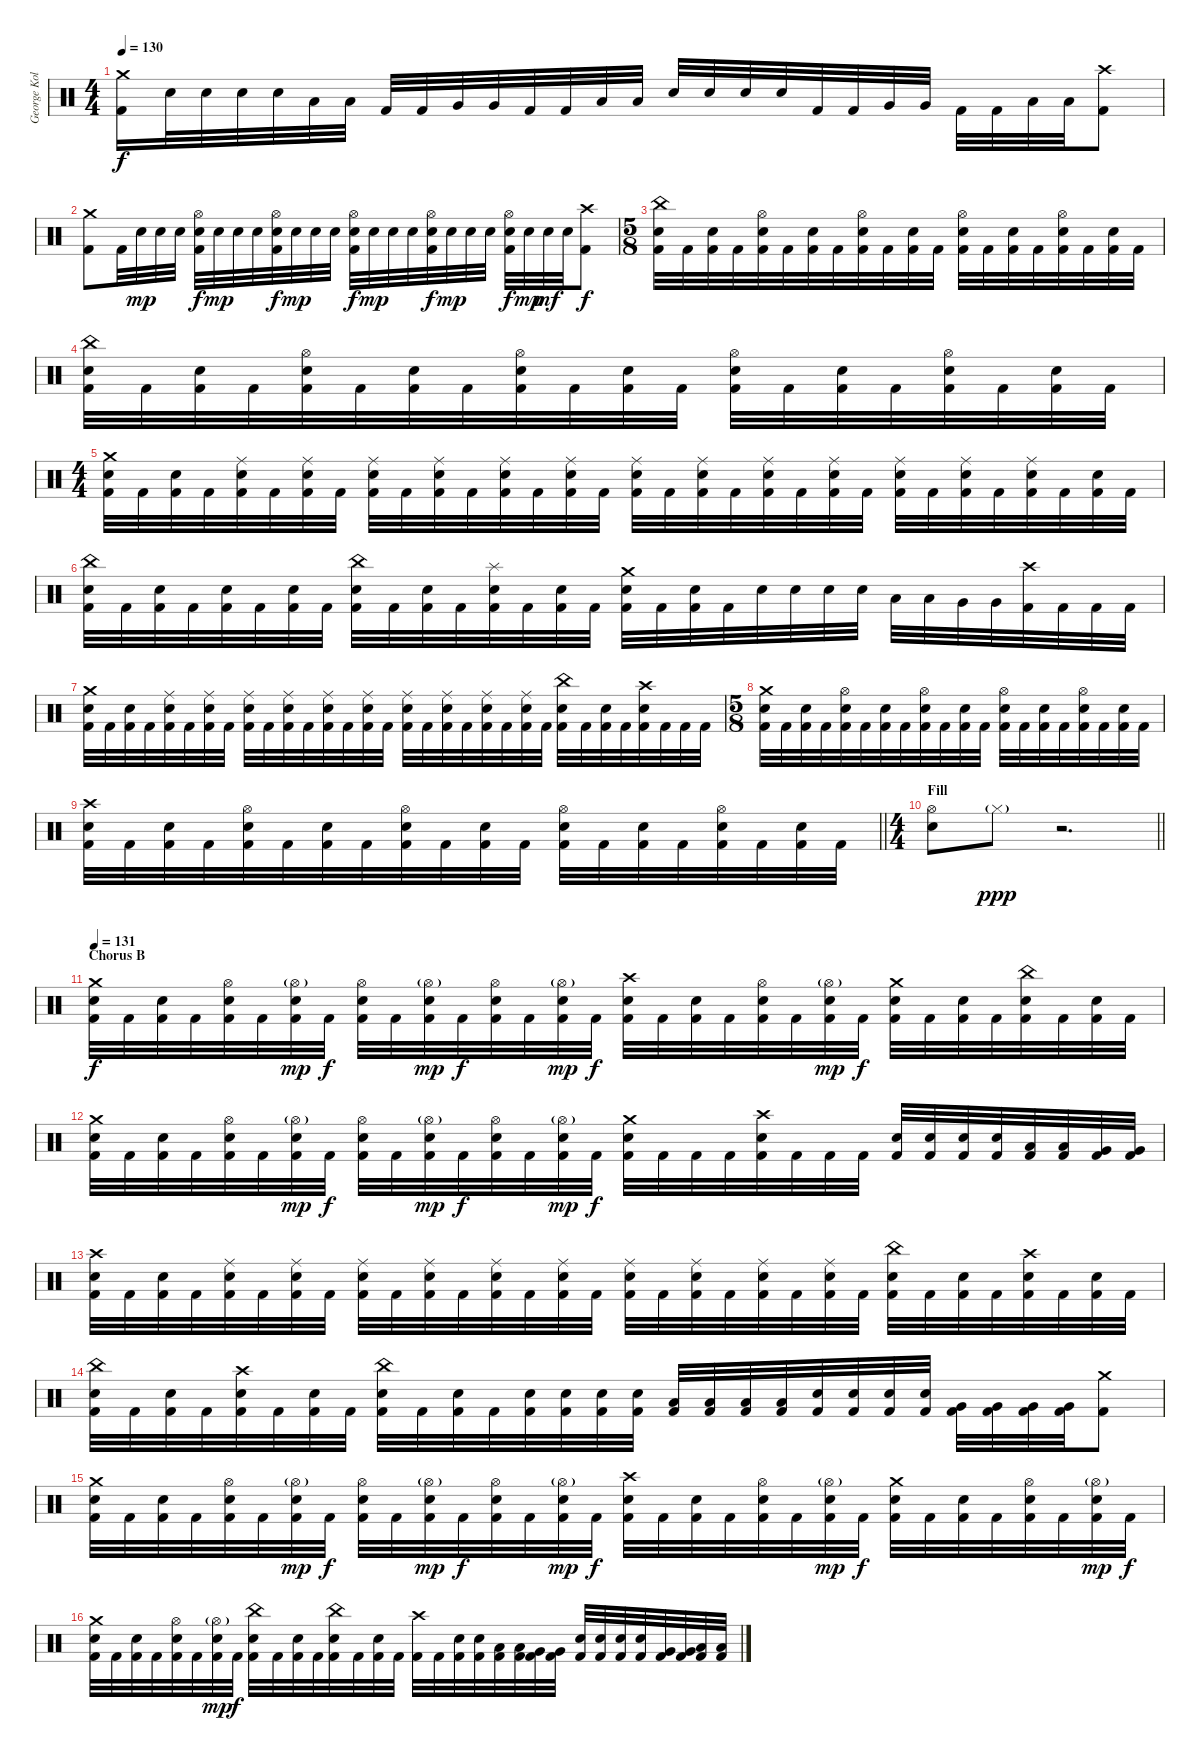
\track ("George Kollias" "George Kol") {instrument percussion}
\staff {score}
\articulation defaults
\ts (4 4)
\tempo 130
\clef neutral
\ks c
("Crash medium (hit)" "Kick (hit) 2").16{dy f} "Electric Snare (hit)".32 "Electric Snare (hit)".32 "Electric Snare (hit)".32 "Electric Snare (hit)".32 "Low Tom (hit)".32 "Low Tom (hit)".32 "Kick (hit) 2".32 "Kick (hit) 2".32 "Very Low Tom (hit)".32 "Very Low Tom (hit)".32 "Kick (hit) 2".32 "Kick (hit) 2".32 "Low Floor Tom (hit)".32 "Low Floor Tom (hit)".32 "Electric Snare (hit)".32 "Electric Snare (hit)".32 "Electric Snare (hit)".32 "Electric Snare (hit)".32 "Kick (hit) 2".32 "Kick (hit) 2".32 "Very Low Tom (hit)".32 "Very Low Tom (hit)".32 "Kick (hit) 2".32 "Kick (hit) 2".32 "Low Floor Tom (hit)".32 "Low Floor Tom (hit)".32 ("Crash high (hit)" "Kick (hit) 2").8 |
("Crash medium (hit)" "Kick (hit) 2").8 "Kick (hit) 2".32 "Electric Snare (hit)".32{dy mp} "Electric Snare (hit)".32 "Electric Snare (hit)".32 ("Hi-Hat (open)" "Electric Snare (hit)" "Kick (hit) 2").32{dy f} "Electric Snare (hit)".32{dy mp} "Electric Snare (hit)".32 "Electric Snare (hit)".32 ("Hi-Hat (open)" "Electric Snare (hit)" "Kick (hit) 2").32{dy f} "Electric Snare (hit)".32{dy mp} "Electric Snare (hit)".32 "Electric Snare (hit)".32 ("Hi-Hat (open)" "Electric Snare (hit)" "Kick (hit) 2").32{dy f} "Electric Snare (hit)".32{dy mp} "Electric Snare (hit)".32 "Electric Snare (hit)".32 ("Hi-Hat (open)" "Electric Snare (hit)" "Kick (hit) 2").32{dy f} "Electric Snare (hit)".32{dy mp} "Electric Snare (hit)".32 "Electric Snare (hit)".32 ("Hi-Hat (open)" "Electric Snare (hit)" "Kick (hit) 2").32{dy f} "Electric Snare (hit)".32{dy mp} "Electric Snare (hit)".32{dy mf} "Electric Snare (hit)".32 ("Crash high (hit)" "Kick (hit) 2").8{dy f} |
\ts (5 8)
("China (hit)" "Electric Snare (hit)" "Kick (hit) 2").32 "Kick (hit) 2".32 ("Electric Snare (hit)" "Kick (hit) 2").32 "Kick (hit) 2".32 ("Hi-Hat (open)" "Electric Snare (hit)" "Kick (hit) 2").32 "Kick (hit) 2".32 ("Electric Snare (hit)" "Kick (hit) 2").32 "Kick (hit) 2".32 ("Hi-Hat (open)" "Electric Snare (hit)" "Kick (hit) 2").32 "Kick (hit) 2".32 ("Electric Snare (hit)" "Kick (hit) 2").32 "Kick (hit) 2".32 ("Hi-Hat (open)" "Electric Snare (hit)" "Kick (hit) 2").32 "Kick (hit) 2".32 ("Electric Snare (hit)" "Kick (hit) 2").32 "Kick (hit) 2".32 ("Hi-Hat (open)" "Electric Snare (hit)" "Kick (hit) 2").32 "Kick (hit) 2".32 ("Electric Snare (hit)" "Kick (hit) 2").32 "Kick (hit) 2".32 |
("China (hit)" "Electric Snare (hit)" "Kick (hit) 2").32 "Kick (hit) 2".32 ("Electric Snare (hit)" "Kick (hit) 2").32 "Kick (hit) 2".32 ("Hi-Hat (open)" "Electric Snare (hit)" "Kick (hit) 2").32 "Kick (hit) 2".32 ("Electric Snare (hit)" "Kick (hit) 2").32 "Kick (hit) 2".32 ("Hi-Hat (open)" "Electric Snare (hit)" "Kick (hit) 2").32 "Kick (hit) 2".32 ("Electric Snare (hit)" "Kick (hit) 2").32 "Kick (hit) 2".32 ("Hi-Hat (open)" "Electric Snare (hit)" "Kick (hit) 2").32 "Kick (hit) 2".32 ("Electric Snare (hit)" "Kick (hit) 2").32 "Kick (hit) 2".32 ("Hi-Hat (open)" "Electric Snare (hit)" "Kick (hit) 2").32 "Kick (hit) 2".32 ("Electric Snare (hit)" "Kick (hit) 2").32 "Kick (hit) 2".32 |
\ts (4 4)
("Crash medium (hit)" "Electric Snare (hit)" "Kick (hit) 2").32 "Kick (hit) 2".32 ("Electric Snare (hit)" "Kick (hit) 2").32 "Kick (hit) 2".32 ("Ride (middle)" "Electric Snare (hit)" "Kick (hit) 2").32 "Kick (hit) 2".32 ("Ride (middle)" "Electric Snare (hit)" "Kick (hit) 2").32 "Kick (hit) 2".32 ("Ride (middle)" "Electric Snare (hit)" "Kick (hit) 2").32 "Kick (hit) 2".32 ("Ride (middle)" "Electric Snare (hit)" "Kick (hit) 2").32 "Kick (hit) 2".32 ("Ride (middle)" "Electric Snare (hit)" "Kick (hit) 2").32 "Kick (hit) 2".32 ("Ride (middle)" "Electric Snare (hit)" "Kick (hit) 2").32 "Kick (hit) 2".32 ("Ride (middle)" "Electric Snare (hit)" "Kick (hit) 2").32 "Kick (hit) 2".32 ("Ride (middle)" "Electric Snare (hit)" "Kick (hit) 2").32 "Kick (hit) 2".32 ("Ride (middle)" "Electric Snare (hit)" "Kick (hit) 2").32 "Kick (hit) 2".32 ("Ride (middle)" "Electric Snare (hit)" "Kick (hit) 2").32 "Kick (hit) 2".32 ("Ride (middle)" "Electric Snare (hit)" "Kick (hit) 2").32 "Kick (hit) 2".32 ("Ride (middle)" "Electric Snare (hit)" "Kick (hit) 2").32 "Kick (hit) 2".32 ("Ride (middle)" "Electric Snare (hit)" "Kick (hit) 2").32 "Kick (hit) 2".32 ("Electric Snare (hit)" "Kick (hit) 2").32 "Kick (hit) 2".32 |
("China (hit)" "Electric Snare (hit)" "Kick (hit) 2").32 "Kick (hit) 2".32 ("Electric Snare (hit)" "Kick (hit) 2").32 "Kick (hit) 2".32 ("Electric Snare (hit)" "Kick (hit) 2").32 "Kick (hit) 2".32 ("Electric Snare (hit)" "Kick (hit) 2").32 "Kick (hit) 2".32 ("China (hit)" "Electric Snare (hit)" "Kick (hit) 2").32 "Kick (hit) 2".32 ("Electric Snare (hit)" "Kick (hit) 2").32 "Kick (hit) 2".32 ("Splash (hit)" "Electric Snare (hit)" "Kick (hit) 2").32 "Kick (hit) 2".32 ("Electric Snare (hit)" "Kick (hit) 2").32 "Kick (hit) 2".32 ("Crash medium (hit)" "Electric Snare (hit)" "Kick (hit) 2").32 "Kick (hit) 2".32 ("Electric Snare (hit)" "Kick (hit) 2").32 "Kick (hit) 2".32 "Electric Snare (hit)".32 "Electric Snare (hit)".32 "Electric Snare (hit)".32 "Electric Snare (hit)".32 "Low Tom (hit)".32 "Low Tom (hit)".32 "Very Low Tom (hit)".32 "Very Low Tom (hit)".32 ("Crash high (hit)" "Kick (hit) 2").32 "Kick (hit) 2".32 "Kick (hit) 2".32 "Kick (hit) 2".32 |
("Crash medium (hit)" "Electric Snare (hit)" "Kick (hit) 2").32 "Kick (hit) 2".32 ("Electric Snare (hit)" "Kick (hit) 2").32 "Kick (hit) 2".32 ("Ride (middle)" "Electric Snare (hit)" "Kick (hit) 2").32 "Kick (hit) 2".32 ("Ride (middle)" "Electric Snare (hit)" "Kick (hit) 2").32 "Kick (hit) 2".32 ("Ride (middle)" "Electric Snare (hit)" "Kick (hit) 2").32 "Kick (hit) 2".32 ("Ride (middle)" "Electric Snare (hit)" "Kick (hit) 2").32 "Kick (hit) 2".32 ("Ride (middle)" "Electric Snare (hit)" "Kick (hit) 2").32 "Kick (hit) 2".32 ("Ride (middle)" "Electric Snare (hit)" "Kick (hit) 2").32 "Kick (hit) 2".32 ("Ride (middle)" "Electric Snare (hit)" "Kick (hit) 2").32 "Kick (hit) 2".32 ("Ride (middle)" "Electric Snare (hit)" "Kick (hit) 2").32 "Kick (hit) 2".32 ("Ride (middle)" "Electric Snare (hit)" "Kick (hit) 2").32 "Kick (hit) 2".32 ("Ride (middle)" "Electric Snare (hit)" "Kick (hit) 2").32 "Kick (hit) 2".32 ("China (hit)" "Electric Snare (hit)" "Kick (hit) 2").32 "Kick (hit) 2".32 ("Electric Snare (hit)" "Kick (hit) 2").32 "Kick (hit) 2".32 ("Crash high (hit)" "Electric Snare (hit)" "Kick (hit) 2").32 "Kick (hit) 2".32 "Kick (hit) 2".32 "Kick (hit) 2".32 |
\ts (5 8)
("Crash medium (hit)" "Electric Snare (hit)" "Kick (hit) 2").32 "Kick (hit) 2".32 ("Electric Snare (hit)" "Kick (hit) 2").32 "Kick (hit) 2".32 ("Hi-Hat (open)" "Electric Snare (hit)" "Kick (hit) 2").32 "Kick (hit) 2".32 ("Electric Snare (hit)" "Kick (hit) 2").32 "Kick (hit) 2".32 ("Hi-Hat (open)" "Electric Snare (hit)" "Kick (hit) 2").32 "Kick (hit) 2".32 ("Electric Snare (hit)" "Kick (hit) 2").32 "Kick (hit) 2".32 ("Hi-Hat (open)" "Electric Snare (hit)" "Kick (hit) 2").32 "Kick (hit) 2".32 ("Electric Snare (hit)" "Kick (hit) 2").32 "Kick (hit) 2".32 ("Hi-Hat (open)" "Electric Snare (hit)" "Kick (hit) 2").32 "Kick (hit) 2".32 ("Electric Snare (hit)" "Kick (hit) 2").32 "Kick (hit) 2".32 |
\barLineRight lightlight
("Crash high (hit)" "Electric Snare (hit)" "Kick (hit) 2").32 "Kick (hit) 2".32 ("Electric Snare (hit)" "Kick (hit) 2").32 "Kick (hit) 2".32 ("Hi-Hat (open)" "Electric Snare (hit)" "Kick (hit) 2").32 "Kick (hit) 2".32 ("Electric Snare (hit)" "Kick (hit) 2").32 "Kick (hit) 2".32 ("Hi-Hat (open)" "Electric Snare (hit)" "Kick (hit) 2").32 "Kick (hit) 2".32 ("Electric Snare (hit)" "Kick (hit) 2").32 "Kick (hit) 2".32 ("Hi-Hat (open)" "Electric Snare (hit)" "Kick (hit) 2").32 "Kick (hit) 2".32 ("Electric Snare (hit)" "Kick (hit) 2").32 "Kick (hit) 2".32 ("Hi-Hat (open)" "Electric Snare (hit)" "Kick (hit) 2").32 "Kick (hit) 2".32 ("Electric Snare (hit)" "Kick (hit) 2").32 "Kick (hit) 2".32 |
\ts (4 4)
\section ("" "Fill")
\barLineRight lightlight
("Hi-Hat (open)" "Electric Snare (hit)").8 "Hi-Hat (closed)"{g}.8{dy ppp} r.2{d} |
\section ("" "Chorus B")
\tempo 131
("Crash medium (hit)" "Electric Snare (hit)" "Kick (hit) 2").32{dy f} "Kick (hit) 2".32 ("Electric Snare (hit)" "Kick (hit) 2").32 "Kick (hit) 2".32 ("Hi-Hat (open)" "Electric Snare (hit)" "Kick (hit) 2").32 "Kick (hit) 2".32 ("Hi-Hat (open)"{g} "Electric Snare (hit)" "Kick (hit) 2").32{dy mp} "Kick (hit) 2".32{dy f} ("Hi-Hat (open)" "Electric Snare (hit)" "Kick (hit) 2").32 "Kick (hit) 2".32 ("Hi-Hat (open)"{g} "Electric Snare (hit)" "Kick (hit) 2").32{dy mp} "Kick (hit) 2".32{dy f} ("Hi-Hat (open)" "Electric Snare (hit)" "Kick (hit) 2").32 "Kick (hit) 2".32 ("Hi-Hat (open)"{g} "Electric Snare (hit)" "Kick (hit) 2").32{dy mp} "Kick (hit) 2".32{dy f} ("Crash high (hit)" "Electric Snare (hit)" "Kick (hit) 2").32 "Kick (hit) 2".32 ("Electric Snare (hit)" "Kick (hit) 2").32 "Kick (hit) 2".32 ("Hi-Hat (open)" "Electric Snare (hit)" "Kick (hit) 2").32 "Kick (hit) 2".32 ("Hi-Hat (open)"{g} "Electric Snare (hit)" "Kick (hit) 2").32{dy mp} "Kick (hit) 2".32{dy f} ("Crash medium (hit)" "Electric Snare (hit)" "Kick (hit) 2").32 "Kick (hit) 2".32 ("Electric Snare (hit)" "Kick (hit) 2").32 "Kick (hit) 2".32 ("China (hit)" "Electric Snare (hit)" "Kick (hit) 2").32 "Kick (hit) 2".32 ("Electric Snare (hit)" "Kick (hit) 2").32 "Kick (hit) 2".32 |
("Crash medium (hit)" "Electric Snare (hit)" "Kick (hit) 2").32 "Kick (hit) 2".32 ("Electric Snare (hit)" "Kick (hit) 2").32 "Kick (hit) 2".32 ("Hi-Hat (open)" "Electric Snare (hit)" "Kick (hit) 2").32 "Kick (hit) 2".32 ("Hi-Hat (open)"{g} "Electric Snare (hit)" "Kick (hit) 2").32{dy mp} "Kick (hit) 2".32{dy f} ("Hi-Hat (open)" "Electric Snare (hit)" "Kick (hit) 2").32 "Kick (hit) 2".32 ("Hi-Hat (open)"{g} "Electric Snare (hit)" "Kick (hit) 2").32{dy mp} "Kick (hit) 2".32{dy f} ("Hi-Hat (open)" "Electric Snare (hit)" "Kick (hit) 2").32 "Kick (hit) 2".32 ("Hi-Hat (open)"{g} "Electric Snare (hit)" "Kick (hit) 2").32{dy mp} "Kick (hit) 2".32{dy f} ("Crash medium (hit)" "Electric Snare (hit)" "Kick (hit) 2").32 "Kick (hit) 2".32 "Kick (hit) 2".32 "Kick (hit) 2".32 ("Crash high (hit)" "Electric Snare (hit)" "Kick (hit) 2").32 "Kick (hit) 2".32 "Kick (hit) 2".32 "Kick (hit) 2".32 ("Electric Snare (hit)" "Kick (hit) 2").32 ("Electric Snare (hit)" "Kick (hit) 2").32 ("Electric Snare (hit)" "Kick (hit) 2").32 ("Electric Snare (hit)" "Kick (hit) 2").32 ("Low Tom (hit)" "Kick (hit) 2").32 ("Low Tom (hit)" "Kick (hit) 2").32 ("Very Low Tom (hit)" "Kick (hit) 2").32 ("Very Low Tom (hit)" "Kick (hit) 2").32 |
("Crash high (hit)" "Electric Snare (hit)" "Kick (hit) 2").32 "Kick (hit) 2".32 ("Electric Snare (hit)" "Kick (hit) 2").32 "Kick (hit) 2".32 ("Ride (middle)" "Electric Snare (hit)" "Kick (hit) 2").32 "Kick (hit) 2".32 ("Ride (middle)" "Electric Snare (hit)" "Kick (hit) 2").32 "Kick (hit) 2".32 ("Ride (middle)" "Electric Snare (hit)" "Kick (hit) 2").32 "Kick (hit) 2".32 ("Ride (middle)" "Electric Snare (hit)" "Kick (hit) 2").32 "Kick (hit) 2".32 ("Ride (middle)" "Electric Snare (hit)" "Kick (hit) 2").32 "Kick (hit) 2".32 ("Ride (middle)" "Electric Snare (hit)" "Kick (hit) 2").32 "Kick (hit) 2".32 ("Ride (middle)" "Electric Snare (hit)" "Kick (hit) 2").32 "Kick (hit) 2".32 ("Ride (middle)" "Electric Snare (hit)" "Kick (hit) 2").32 "Kick (hit) 2".32 ("Ride (middle)" "Electric Snare (hit)" "Kick (hit) 2").32 "Kick (hit) 2".32 ("Ride (middle)" "Electric Snare (hit)" "Kick (hit) 2").32 "Kick (hit) 2".32 ("China (hit)" "Electric Snare (hit)" "Kick (hit) 2").32 "Kick (hit) 2".32 ("Electric Snare (hit)" "Kick (hit) 2").32 "Kick (hit) 2".32 ("Crash high (hit)" "Electric Snare (hit)" "Kick (hit) 2").32 "Kick (hit) 2".32 ("Electric Snare (hit)" "Kick (hit) 2").32 "Kick (hit) 2".32 |
("China (hit)" "Electric Snare (hit)" "Kick (hit) 2").32 "Kick (hit) 2".32 ("Electric Snare (hit)" "Kick (hit) 2").32 "Kick (hit) 2".32 ("Crash high (hit)" "Electric Snare (hit)" "Kick (hit) 2").32 "Kick (hit) 2".32 ("Electric Snare (hit)" "Kick (hit) 2").32 "Kick (hit) 2".32 ("China (hit)" "Electric Snare (hit)" "Kick (hit) 2").32 "Kick (hit) 2".32 ("Electric Snare (hit)" "Kick (hit) 2").32 "Kick (hit) 2".32 ("Electric Snare (hit)" "Kick (hit) 2").32 ("Electric Snare (hit)" "Kick (hit) 2").32 ("Electric Snare (hit)" "Kick (hit) 2").32 ("Electric Snare (hit)" "Kick (hit) 2").32 ("Low Tom (hit)" "Kick (hit) 2").32 ("Low Tom (hit)" "Kick (hit) 2").32 ("Low Tom (hit)" "Kick (hit) 2").32 ("Low Tom (hit)" "Kick (hit) 2").32 ("Electric Snare (hit)" "Kick (hit) 2").32 ("Electric Snare (hit)" "Kick (hit) 2").32 ("Electric Snare (hit)" "Kick (hit) 2").32 ("Electric Snare (hit)" "Kick (hit) 2").32 ("Very Low Tom (hit)" "Kick (hit) 2").32 ("Very Low Tom (hit)" "Kick (hit) 2").32 ("Very Low Tom (hit)" "Kick (hit) 2").32 ("Very Low Tom (hit)" "Kick (hit) 2").32 ("Crash medium (hit)" "Kick (hit) 2").8 |
("Crash medium (hit)" "Electric Snare (hit)" "Kick (hit) 2").32 "Kick (hit) 2".32 ("Electric Snare (hit)" "Kick (hit) 2").32 "Kick (hit) 2".32 ("Hi-Hat (open)" "Electric Snare (hit)" "Kick (hit) 2").32 "Kick (hit) 2".32 ("Hi-Hat (open)"{g} "Electric Snare (hit)" "Kick (hit) 2").32{dy mp} "Kick (hit) 2".32{dy f} ("Hi-Hat (open)" "Electric Snare (hit)" "Kick (hit) 2").32 "Kick (hit) 2".32 ("Hi-Hat (open)"{g} "Electric Snare (hit)" "Kick (hit) 2").32{dy mp} "Kick (hit) 2".32{dy f} ("Hi-Hat (open)" "Electric Snare (hit)" "Kick (hit) 2").32 "Kick (hit) 2".32 ("Hi-Hat (open)"{g} "Electric Snare (hit)" "Kick (hit) 2").32{dy mp} "Kick (hit) 2".32{dy f} ("Crash high (hit)" "Electric Snare (hit)" "Kick (hit) 2").32 "Kick (hit) 2".32 ("Electric Snare (hit)" "Kick (hit) 2").32 "Kick (hit) 2".32 ("Hi-Hat (open)" "Electric Snare (hit)" "Kick (hit) 2").32 "Kick (hit) 2".32 ("Hi-Hat (open)"{g} "Electric Snare (hit)" "Kick (hit) 2").32{dy mp} "Kick (hit) 2".32{dy f} ("Crash medium (hit)" "Electric Snare (hit)" "Kick (hit) 2").32 "Kick (hit) 2".32 ("Electric Snare (hit)" "Kick (hit) 2").32 "Kick (hit) 2".32 ("Hi-Hat (open)" "Electric Snare (hit)" "Kick (hit) 2").32 "Kick (hit) 2".32 ("Hi-Hat (open)"{g} "Electric Snare (hit)" "Kick (hit) 2").32{dy mp} "Kick (hit) 2".32{dy f} |
("Crash medium (hit)" "Electric Snare (hit)" "Kick (hit) 2").32 "Kick (hit) 2".32 ("Electric Snare (hit)" "Kick (hit) 2").32 "Kick (hit) 2".32 ("Hi-Hat (open)" "Electric Snare (hit)" "Kick (hit) 2").32 "Kick (hit) 2".32 ("Hi-Hat (open)"{g} "Electric Snare (hit)" "Kick (hit) 2").32{dy mp} "Kick (hit) 2".32{dy f} ("China (hit)" "Electric Snare (hit)" "Kick (hit) 2").32 "Kick (hit) 2".32 ("Electric Snare (hit)" "Kick (hit) 2").32 "Kick (hit) 2".32 ("China (hit)" "Electric Snare (hit)" "Kick (hit) 2").32 "Kick (hit) 2".32 ("Electric Snare (hit)" "Kick (hit) 2").32 "Kick (hit) 2".32 ("Crash high (hit)" "Kick (hit) 2").32 "Kick (hit) 2".32 ("Electric Snare (hit)" "Kick (hit) 2").32 ("Electric Snare (hit)" "Kick (hit) 2").32 ("Low Tom (hit)" "Kick (hit) 2").32 ("Low Tom (hit)" "Kick (hit) 2").32 ("Very Low Tom (hit)" "Kick (hit) 2").32 ("Very Low Tom (hit)" "Kick (hit) 2").32 ("Electric Snare (hit)" "Kick (hit) 2").32 ("Electric Snare (hit)" "Kick (hit) 2").32 ("Electric Snare (hit)" "Kick (hit) 2").32 ("Electric Snare (hit)" "Kick (hit) 2").32 ("Very Low Tom (hit)" "Kick (hit) 2").32 ("Very Low Tom (hit)" "Kick (hit) 2").32 ("Low Floor Tom (hit)" "Kick (hit) 2").32 ("Low Floor Tom (hit)" "Kick (hit) 2").32
